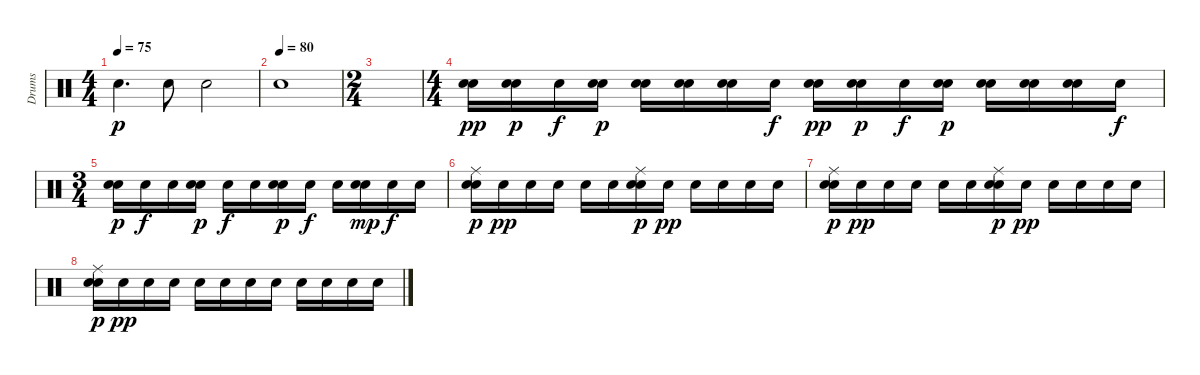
\track ("Drums" "Drums") {instrument percussion}
\staff {score}
\articulation defaults
\ts (4 4)
\tempo 75
\clef neutral
\ks c "Electric Snare (hit)".4{d dy p} "Electric Snare (hit)".8 "Electric Snare (hit)".2
|
\tempo (80)
"Electric Snare (hit)".1 |
\ts (2 4)
|
\ts (4 4)
("Snare (hit)" "Electric Snare (hit)").16{dy pp} ("Snare (hit)" "Electric Snare (hit)").16{dy p} "Snare (hit)".16{dy f} ("Snare (hit)" "Electric Snare (hit)").16{dy p} ("Snare (hit)" "Electric Snare (hit)").16 ("Snare (hit)" "Electric Snare (hit)").16 ("Snare (hit)" "Electric Snare (hit)").16 "Snare (hit)".16{dy f} ("Snare (hit)" "Electric Snare (hit)").16{dy pp} ("Snare (hit)" "Electric Snare (hit)").16{dy p} "Snare (hit)".16{dy f} ("Snare (hit)" "Electric Snare (hit)").16{dy p} ("Snare (hit)" "Electric Snare (hit)").16 ("Snare (hit)" "Electric Snare (hit)").16 ("Snare (hit)" "Electric Snare (hit)").16 "Snare (hit)".16{dy f} |
\ts (3 4)
("Snare (hit)" "Electric Snare (hit)").16{dy p} "Snare (hit)".16{dy f} "Snare (hit)".16 ("Snare (hit)" "Electric Snare (hit)").16{dy p} "Snare (hit)".16{dy f} "Snare (hit)".16 ("Snare (hit)" "Electric Snare (hit)").16{dy p} "Snare (hit)".16{dy f} "Snare (hit)".16 ("Snare (hit)" "Electric Snare (hit)").16{dy mp} "Snare (hit)".16{dy f} "Snare (hit)".16 |
("Snare (hit)" "Ride (middle)" "Electric Snare (hit)").16{dy p} "Snare (hit)".16{dy pp} "Snare (hit)".16 "Snare (hit)".16 "Snare (hit)".16 "Snare (hit)".16 ("Snare (hit)" "Ride (middle)" "Electric Snare (hit)").16{dy p} "Snare (hit)".16{dy pp} "Snare (hit)".16 "Snare (hit)".16 "Snare (hit)".16 "Snare (hit)".16 |
("Snare (hit)" "Ride (middle)" "Electric Snare (hit)").16{dy p} "Snare (hit)".16{dy pp} "Snare (hit)".16 "Snare (hit)".16 "Snare (hit)".16 "Snare (hit)".16 ("Snare (hit)" "Ride (middle)" "Electric Snare (hit)").16{dy p} "Snare (hit)".16{dy pp} "Snare (hit)".16 "Snare (hit)".16 "Snare (hit)".16 "Snare (hit)".16 |
("Snare (hit)" "Ride (middle)" "Electric Snare (hit)").16{dy p} "Snare (hit)".16{dy pp} "Snare (hit)".16 "Snare (hit)".16 "Snare (hit)".16 "Snare (hit)".16 "Snare (hit)".16 "Snare (hit)".16 "Snare (hit)".16 "Snare (hit)".16 "Snare (hit)".16 "Snare (hit)".16
